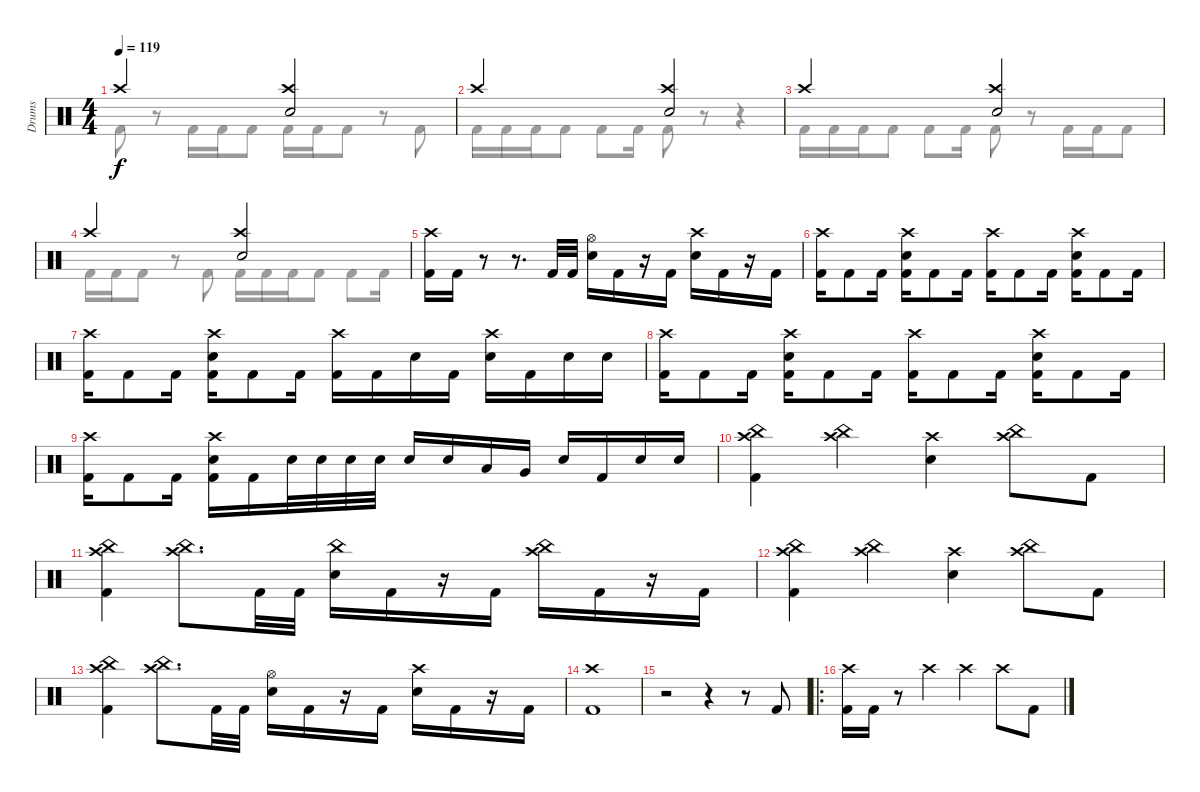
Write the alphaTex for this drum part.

\track ("Drums" "Drums") {instrument percussion}
\staff {score}
\articulation defaults
\voice
\ts (4 4)
\tempo 119
\clef neutral
\ks c "Crash high (hit)".2{dy f}
("Crash high (hit)" "Electric Snare (hit)").2 |
"Crash high (hit)".2 ("Crash high (hit)" "Electric Snare (hit)").2 |
"Crash high (hit)".2 ("Crash high (hit)" "Electric Snare (hit)").2 |
"Crash high (hit)".2 ("Crash high (hit)" "Electric Snare (hit)").2 |
("Crash high (hit)" "Kick (hit) 2").16 "Kick (hit) 2".16 r.8 r.8{d} "Kick (hit) 2".32 "Kick (hit) 2".32 ("Hi-Hat (open)" "Electric Snare (hit)").16 "Kick (hit) 2".16 r.16 "Kick (hit) 2".16 ("Crash high (hit)" "Electric Snare (hit)").16 "Kick (hit) 2".16 r.16 "Kick (hit) 2".16 |
("Crash high (hit)" "Kick (hit) 2").16 "Kick (hit) 2".8 "Kick (hit) 2".16 ("Crash high (hit)" "Electric Snare (hit)" "Kick (hit) 2").16 "Kick (hit) 2".8 "Kick (hit) 2".16 ("Crash high (hit)" "Kick (hit) 2").16 "Kick (hit) 2".8 "Kick (hit) 2".16 ("Crash high (hit)" "Electric Snare (hit)" "Kick (hit) 2").16 "Kick (hit) 2".8 "Kick (hit) 2".16 |
("Crash high (hit)" "Kick (hit) 2").16 "Kick (hit) 2".8 "Kick (hit) 2".16 ("Crash high (hit)" "Electric Snare (hit)" "Kick (hit) 2").16 "Kick (hit) 2".8 "Kick (hit) 2".16 ("Crash high (hit)" "Kick (hit) 2").16 "Kick (hit) 2".16 "Electric Snare (hit)".16 "Kick (hit) 2".16 ("Crash high (hit)" "Electric Snare (hit)").16 "Kick (hit) 2".16 "Electric Snare (hit)".16 "Electric Snare (hit)".16 |
("Crash high (hit)" "Kick (hit) 2").16 "Kick (hit) 2".8 "Kick (hit) 2".16 ("Crash high (hit)" "Electric Snare (hit)" "Kick (hit) 2").16 "Kick (hit) 2".8 "Kick (hit) 2".16 ("Crash high (hit)" "Kick (hit) 2").16 "Kick (hit) 2".8 "Kick (hit) 2".16 ("Crash high (hit)" "Electric Snare (hit)" "Kick (hit) 2").16 "Kick (hit) 2".8 "Kick (hit) 2".16 |
("Crash high (hit)" "Kick (hit) 2").16 "Kick (hit) 2".8 "Kick (hit) 2".16 ("Crash high (hit)" "Electric Snare (hit)" "Kick (hit) 2").16 "Kick (hit) 2".16 "Electric Snare (hit)".32 "Electric Snare (hit)".32 "Electric Snare (hit)".32 "Electric Snare (hit)".32 "Electric Snare (hit)".16 "Electric Snare (hit)".16 "Low Tom (hit)".16 "Very Low Tom (hit)".16 "Electric Snare (hit)".16 "Kick (hit) 2".16 "Electric Snare (hit)".16 "Electric Snare (hit)".16 |
("Crash high (hit)" "China (hit)" "Kick (hit) 2").4 ("Crash high (hit)" "China (hit)").4 ("Crash high (hit)" "Electric Snare (hit)").4 ("Crash high (hit)" "China (hit)").8 "Kick (hit) 2".8 |
("Crash high (hit)" "China (hit)" "Kick (hit) 2").4 ("Crash high (hit)" "China (hit)").8{d} "Kick (hit) 2".32 "Kick (hit) 2".32 ("China (hit)" "Electric Snare (hit)").16 "Kick (hit) 2".16 r.16 "Kick (hit) 2".16 ("Crash high (hit)" "China (hit)").16 "Kick (hit) 2".16 r.16 "Kick (hit) 2".16 |
("Crash high (hit)" "China (hit)" "Kick (hit) 2").4 ("Crash high (hit)" "China (hit)").4 ("Crash high (hit)" "Electric Snare (hit)").4 ("Crash high (hit)" "China (hit)").8 "Kick (hit) 2".8 |
("Crash high (hit)" "China (hit)" "Kick (hit) 2").4 ("Crash high (hit)" "China (hit)").8{d} "Kick (hit) 2".32 "Kick (hit) 2".32 ("Hi-Hat (open)" "Electric Snare (hit)").16 "Kick (hit) 2".16 r.16 "Kick (hit) 2".16 ("Crash high (hit)" "Electric Snare (hit)").16 "Kick (hit) 2".16 r.16 "Kick (hit) 2".16 |
("Crash high (hit)" "Kick (hit) 2").1 |
r.2 r.4 r.8 "Kick (hit) 2".8 |
\ro
("Crash high (hit)" "Kick (hit) 2").16 "Kick (hit) 2".16 r.8 "Crash high (hit)".4 "Crash high (hit)".4 "Crash high (hit)".8 "Kick (hit) 2".8
\voice
\clef neutral
\ottava regular
\simile none
\ks c "Kick (hit) 2".8{dy f}
r.8 "Kick (hit) 2".16 "Kick (hit) 2".16 "Kick (hit) 2".8 "Kick (hit) 2".16 "Kick (hit) 2".16 "Kick (hit) 2".8 r.8 "Kick (hit) 2".8 |
"Kick (hit) 2".16 "Kick (hit) 2".16 "Kick (hit) 2".16 "Kick (hit) 2".8 "Kick (hit) 2".8 "Kick (hit) 2".16 "Kick (hit) 2".8 r.8 r.4 |
"Kick (hit) 2".16 "Kick (hit) 2".16 "Kick (hit) 2".16 "Kick (hit) 2".8 "Kick (hit) 2".8 "Kick (hit) 2".16 "Kick (hit) 2".8 r.8 "Kick (hit) 2".16 "Kick (hit) 2".16 "Kick (hit) 2".8 |
"Kick (hit) 2".16 "Kick (hit) 2".16 "Kick (hit) 2".8 r.8 "Kick (hit) 2".8 "Kick (hit) 2".16 "Kick (hit) 2".16 "Kick (hit) 2".16 "Kick (hit) 2".8 "Kick (hit) 2".8 "Kick (hit) 2".16 |
|
|
|
|
|
|
|
|
|
|
|
